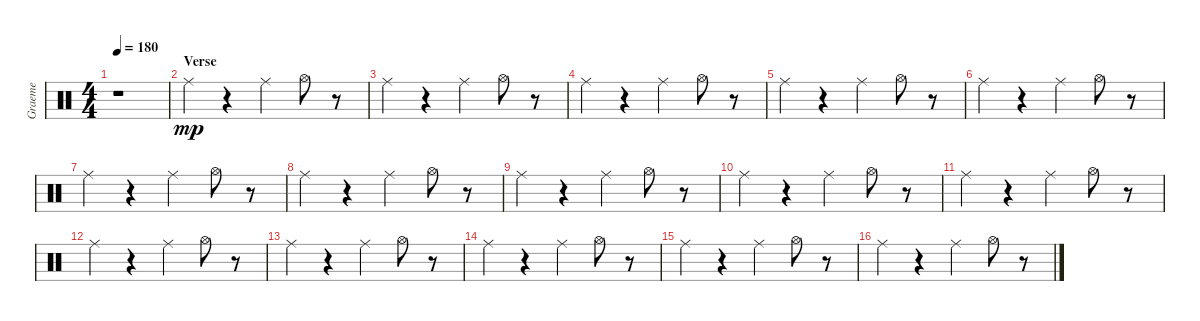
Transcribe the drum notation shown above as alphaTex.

\track ("Graeme" "Graeme") {instrument percussion}
\staff {score}
\articulation defaults
\ts (4 4)
\tempo 180
\clef neutral
\ks c
r.1{dy fff} |
\section ("" "Verse")
"Ride (middle)".4{dy mp} r.4 "Ride (middle)".4 "Hi-Hat (open)".8 r.8 |
"Ride (middle)".4 r.4 "Ride (middle)".4 "Hi-Hat (open)".8 r.8 |
"Ride (middle)".4 r.4 "Ride (middle)".4 "Hi-Hat (open)".8 r.8 |
"Ride (middle)".4 r.4 "Ride (middle)".4 "Hi-Hat (open)".8 r.8 |
"Ride (middle)".4 r.4 "Ride (middle)".4 "Hi-Hat (open)".8 r.8 |
"Ride (middle)".4 r.4 "Ride (middle)".4 "Hi-Hat (open)".8 r.8 |
"Ride (middle)".4 r.4 "Ride (middle)".4 "Hi-Hat (open)".8 r.8 |
"Ride (middle)".4 r.4 "Ride (middle)".4 "Hi-Hat (open)".8 r.8 |
"Ride (middle)".4 r.4 "Ride (middle)".4 "Hi-Hat (open)".8 r.8 |
"Ride (middle)".4 r.4 "Ride (middle)".4 "Hi-Hat (open)".8 r.8 |
"Ride (middle)".4 r.4 "Ride (middle)".4 "Hi-Hat (open)".8 r.8 |
"Ride (middle)".4 r.4 "Ride (middle)".4 "Hi-Hat (open)".8 r.8 |
"Ride (middle)".4 r.4 "Ride (middle)".4 "Hi-Hat (open)".8 r.8 |
"Ride (middle)".4 r.4 "Ride (middle)".4 "Hi-Hat (open)".8 r.8 |
"Ride (middle)".4 r.4 "Ride (middle)".4 "Hi-Hat (open)".8 r.8
